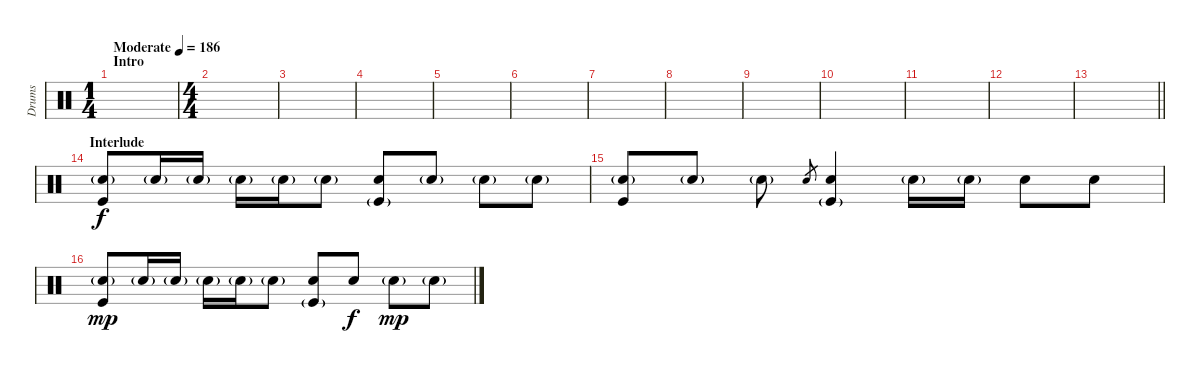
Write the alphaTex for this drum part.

\track ("Drums" "Drums") {instrument percussion}
\staff {score}
\articulation defaults
\ts (1 4)
\section ("" "Intro")
\tempo (186 "Moderate")
\clef neutral
\ks c
|
\ts (4 4)
|
|
|
|
|
|
|
|
|
|
|
\barLineRight lightlight
|
\section ("" "Interlude")
("Electric Snare (hit)"{g} "Kick (hit)").8 "Electric Snare (hit)"{g}.16 "Electric Snare (hit)"{g}.16 "Electric Snare (hit)"{g}.16 "Electric Snare (hit)"{g}.16 "Electric Snare (hit)"{g}.8 ("Electric Snare (hit)" "Kick (hit)"{g}).8 "Electric Snare (hit)"{g}.8 "Electric Snare (hit)"{g}.8 "Electric Snare (hit)"{g}.8 |
("Electric Snare (hit)"{g} "Kick (hit)").8 "Electric Snare (hit)"{g}.8 "Electric Snare (hit)"{g}.8 "Electric Snare (hit)".8{gr} ("Electric Snare (hit)" "Kick (hit)"{g}).4 "Electric Snare (hit)"{g}.16 "Electric Snare (hit)"{g}.16 "Electric Snare (hit)".8{dy f} "Electric Snare (hit)".8 |
("Electric Snare (hit)"{g} "Kick (hit)").8{dy mp} "Electric Snare (hit)"{g}.16 "Electric Snare (hit)"{g}.16 "Electric Snare (hit)"{g}.16 "Electric Snare (hit)"{g}.16 "Electric Snare (hit)"{g}.8 ("Electric Snare (hit)" "Kick (hit)"{g}).8 "Electric Snare (hit)".8{dy f} "Electric Snare (hit)"{g}.8{dy mp} "Electric Snare (hit)"{g}.8
